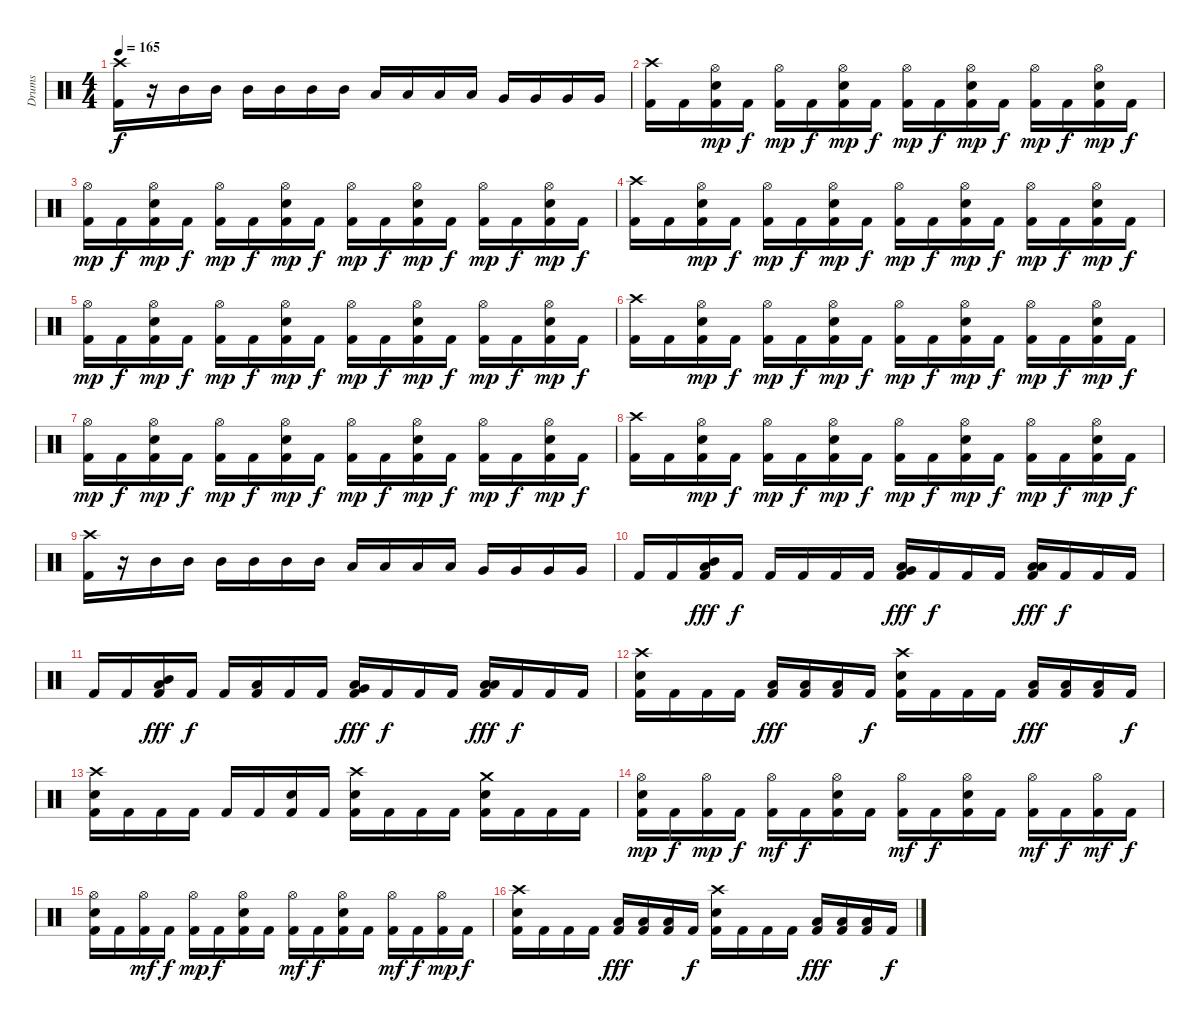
\track ("Drums" "Drums") {instrument percussion}
\staff {score}
\articulation defaults
\ts (4 4)
\tempo 165
\clef neutral
\ks c
("Crash high (hit)" "Kick (hit) 2").16{dy f} r.16 "Mid Tom (hit)".16 "Mid Tom (hit)".16 "Mid Tom (hit)".16 "Mid Tom (hit)".16 "Mid Tom (hit)".16 "Mid Tom (hit)".16 "Low Tom (hit)".16 "Low Tom (hit)".16 "Low Tom (hit)".16 "Low Tom (hit)".16 "Very Low Tom (hit)".16 "Very Low Tom (hit)".16 "Very Low Tom (hit)".16 "Very Low Tom (hit)".16 |
("Crash high (hit)" "Kick (hit) 2").16 "Kick (hit) 2".16 ("Hi-Hat (open)" "Snare (hit) 2" "Kick (hit) 2").16{dy mp} "Kick (hit) 2".16{dy f} ("Hi-Hat (open)" "Kick (hit) 2").16{dy mp} "Kick (hit) 2".16{dy f} ("Hi-Hat (open)" "Snare (hit) 2" "Kick (hit) 2").16{dy mp} "Kick (hit) 2".16{dy f} ("Hi-Hat (open)" "Kick (hit) 2").16{dy mp} "Kick (hit) 2".16{dy f} ("Hi-Hat (open)" "Snare (hit) 2" "Kick (hit) 2").16{dy mp} "Kick (hit) 2".16{dy f} ("Hi-Hat (open)" "Kick (hit) 2").16{dy mp} "Kick (hit) 2".16{dy f} ("Hi-Hat (open)" "Snare (hit) 2" "Kick (hit) 2").16{dy mp} "Kick (hit) 2".16{dy f} |
("Hi-Hat (open)" "Kick (hit) 2").16{dy mp} "Kick (hit) 2".16{dy f} ("Hi-Hat (open)" "Snare (hit) 2" "Kick (hit) 2").16{dy mp} "Kick (hit) 2".16{dy f} ("Hi-Hat (open)" "Kick (hit) 2").16{dy mp} "Kick (hit) 2".16{dy f} ("Hi-Hat (open)" "Snare (hit) 2" "Kick (hit) 2").16{dy mp} "Kick (hit) 2".16{dy f} ("Hi-Hat (open)" "Kick (hit) 2").16{dy mp} "Kick (hit) 2".16{dy f} ("Hi-Hat (open)" "Snare (hit) 2" "Kick (hit) 2").16{dy mp} "Kick (hit) 2".16{dy f} ("Hi-Hat (open)" "Kick (hit) 2").16{dy mp} "Kick (hit) 2".16{dy f} ("Hi-Hat (open)" "Snare (hit) 2" "Kick (hit) 2").16{dy mp} "Kick (hit) 2".16{dy f} |
("Crash high (hit)" "Kick (hit) 2").16 "Kick (hit) 2".16 ("Hi-Hat (open)" "Snare (hit) 2" "Kick (hit) 2").16{dy mp} "Kick (hit) 2".16{dy f} ("Hi-Hat (open)" "Kick (hit) 2").16{dy mp} "Kick (hit) 2".16{dy f} ("Hi-Hat (open)" "Snare (hit) 2" "Kick (hit) 2").16{dy mp} "Kick (hit) 2".16{dy f} ("Hi-Hat (open)" "Kick (hit) 2").16{dy mp} "Kick (hit) 2".16{dy f} ("Hi-Hat (open)" "Snare (hit) 2" "Kick (hit) 2").16{dy mp} "Kick (hit) 2".16{dy f} ("Hi-Hat (open)" "Kick (hit) 2").16{dy mp} "Kick (hit) 2".16{dy f} ("Hi-Hat (open)" "Snare (hit) 2" "Kick (hit) 2").16{dy mp} "Kick (hit) 2".16{dy f} |
("Hi-Hat (open)" "Kick (hit) 2").16{dy mp} "Kick (hit) 2".16{dy f} ("Hi-Hat (open)" "Snare (hit) 2" "Kick (hit) 2").16{dy mp} "Kick (hit) 2".16{dy f} ("Hi-Hat (open)" "Kick (hit) 2").16{dy mp} "Kick (hit) 2".16{dy f} ("Hi-Hat (open)" "Snare (hit) 2" "Kick (hit) 2").16{dy mp} "Kick (hit) 2".16{dy f} ("Hi-Hat (open)" "Kick (hit) 2").16{dy mp} "Kick (hit) 2".16{dy f} ("Hi-Hat (open)" "Snare (hit) 2" "Kick (hit) 2").16{dy mp} "Kick (hit) 2".16{dy f} ("Hi-Hat (open)" "Kick (hit) 2").16{dy mp} "Kick (hit) 2".16{dy f} ("Hi-Hat (open)" "Snare (hit) 2" "Kick (hit) 2").16{dy mp} "Kick (hit) 2".16{dy f} |
("Crash high (hit)" "Kick (hit) 2").16 "Kick (hit) 2".16 ("Hi-Hat (open)" "Snare (hit) 2" "Kick (hit) 2").16{dy mp} "Kick (hit) 2".16{dy f} ("Hi-Hat (open)" "Kick (hit) 2").16{dy mp} "Kick (hit) 2".16{dy f} ("Hi-Hat (open)" "Snare (hit) 2" "Kick (hit) 2").16{dy mp} "Kick (hit) 2".16{dy f} ("Hi-Hat (open)" "Kick (hit) 2").16{dy mp} "Kick (hit) 2".16{dy f} ("Hi-Hat (open)" "Snare (hit) 2" "Kick (hit) 2").16{dy mp} "Kick (hit) 2".16{dy f} ("Hi-Hat (open)" "Kick (hit) 2").16{dy mp} "Kick (hit) 2".16{dy f} ("Hi-Hat (open)" "Snare (hit) 2" "Kick (hit) 2").16{dy mp} "Kick (hit) 2".16{dy f} |
("Hi-Hat (open)" "Kick (hit) 2").16{dy mp} "Kick (hit) 2".16{dy f} ("Hi-Hat (open)" "Snare (hit) 2" "Kick (hit) 2").16{dy mp} "Kick (hit) 2".16{dy f} ("Hi-Hat (open)" "Kick (hit) 2").16{dy mp} "Kick (hit) 2".16{dy f} ("Hi-Hat (open)" "Snare (hit) 2" "Kick (hit) 2").16{dy mp} "Kick (hit) 2".16{dy f} ("Hi-Hat (open)" "Kick (hit) 2").16{dy mp} "Kick (hit) 2".16{dy f} ("Hi-Hat (open)" "Snare (hit) 2" "Kick (hit) 2").16{dy mp} "Kick (hit) 2".16{dy f} ("Hi-Hat (open)" "Kick (hit) 2").16{dy mp} "Kick (hit) 2".16{dy f} ("Hi-Hat (open)" "Snare (hit) 2" "Kick (hit) 2").16{dy mp} "Kick (hit) 2".16{dy f} |
("Crash high (hit)" "Kick (hit) 2").16 "Kick (hit) 2".16 ("Hi-Hat (open)" "Snare (hit) 2" "Kick (hit) 2").16{dy mp} "Kick (hit) 2".16{dy f} ("Hi-Hat (open)" "Kick (hit) 2").16{dy mp} "Kick (hit) 2".16{dy f} ("Hi-Hat (open)" "Snare (hit) 2" "Kick (hit) 2").16{dy mp} "Kick (hit) 2".16{dy f} ("Hi-Hat (open)" "Kick (hit) 2").16{dy mp} "Kick (hit) 2".16{dy f} ("Hi-Hat (open)" "Snare (hit) 2" "Kick (hit) 2").16{dy mp} "Kick (hit) 2".16{dy f} ("Hi-Hat (open)" "Kick (hit) 2").16{dy mp} "Kick (hit) 2".16{dy f} ("Hi-Hat (open)" "Snare (hit) 2" "Kick (hit) 2").16{dy mp} "Kick (hit) 2".16{dy f} |
("Crash high (hit)" "Kick (hit) 2").16 r.16 "Mid Tom (hit)".16 "Mid Tom (hit)".16 "Mid Tom (hit)".16 "Mid Tom (hit)".16 "Mid Tom (hit)".16 "Mid Tom (hit)".16 "Low Tom (hit)".16 "Low Tom (hit)".16 "Low Tom (hit)".16 "Low Tom (hit)".16 "Very Low Tom (hit)".16 "Very Low Tom (hit)".16 "Very Low Tom (hit)".16 "Very Low Tom (hit)".16 |
"Kick (hit) 2".16 "Kick (hit) 2".16 ("Mid Tom (hit)" "Low Tom (hit)" "Kick (hit) 2").16{dy fff} "Kick (hit) 2".16{dy f} "Kick (hit) 2".16 "Kick (hit) 2".16 "Kick (hit) 2".16 "Kick (hit) 2".16 ("Low Tom (hit)" "Very Low Tom (hit)" "Kick (hit) 2").16{dy fff} "Kick (hit) 2".16{dy f} "Kick (hit) 2".16 "Kick (hit) 2".16 ("Low Tom (hit)" "Low Floor Tom (hit)" "Kick (hit) 2").16{dy fff} "Kick (hit) 2".16{dy f} "Kick (hit) 2".16 "Kick (hit) 2".16 |
"Kick (hit) 2".16 "Kick (hit) 2".16 ("Mid Tom (hit)" "Low Tom (hit)" "Kick (hit) 2").16{dy fff} "Kick (hit) 2".16{dy f} "Kick (hit) 2".16 ("Low Tom (hit)" "Kick (hit) 2").16 "Kick (hit) 2".16 "Kick (hit) 2".16 ("Low Tom (hit)" "Very Low Tom (hit)" "Kick (hit) 2").16{dy fff} "Kick (hit) 2".16{dy f} "Kick (hit) 2".16 "Kick (hit) 2".16 ("Low Tom (hit)" "Low Floor Tom (hit)" "Kick (hit) 2").16{dy fff} "Kick (hit) 2".16{dy f} "Kick (hit) 2".16 "Kick (hit) 2".16 |
("Crash high (hit)" "Snare (hit) 2" "Kick (hit) 2").16 "Kick (hit) 2".16 "Kick (hit) 2".16 "Kick (hit) 2".16 ("Low Tom (hit)" "Kick (hit) 2").16{dy fff} ("Low Tom (hit)" "Kick (hit) 2").16 ("Low Tom (hit)" "Kick (hit) 2").16 "Kick (hit) 2".16{dy f} ("Crash high (hit)" "Snare (hit) 2" "Kick (hit) 2").16 "Kick (hit) 2".16 "Kick (hit) 2".16 "Kick (hit) 2".16 ("Low Tom (hit)" "Kick (hit) 2").16{dy fff} ("Low Tom (hit)" "Kick (hit) 2").16 ("Low Tom (hit)" "Kick (hit) 2").16 "Kick (hit) 2".16{dy f} |
("Crash high (hit)" "Snare (hit) 2" "Kick (hit) 2").16 "Kick (hit) 2".16 "Kick (hit) 2".16 "Kick (hit) 2".16 "Kick (hit) 2".16 "Kick (hit) 2".16 ("Snare (hit) 2" "Kick (hit) 2").16 "Kick (hit) 2".16 ("Crash high (hit)" "Snare (hit) 2" "Kick (hit) 2").16 "Kick (hit) 2".16 "Kick (hit) 2".16 "Kick (hit) 2".16 ("Crash medium (hit)" "Snare (hit) 2" "Kick (hit) 2").16 "Kick (hit) 2".16 "Kick (hit) 2".16 "Kick (hit) 2".16 |
("Hi-Hat (open)" "Snare (hit) 2" "Kick (hit) 2").16{dy mp} "Kick (hit) 2".16{dy f} ("Hi-Hat (open)" "Kick (hit) 2").16{dy mp} "Kick (hit) 2".16{dy f} ("Hi-Hat (open)" "Kick (hit) 2").16{dy mf} "Kick (hit) 2".16{dy f} ("Hi-Hat (open)" "Snare (hit) 2" "Kick (hit) 2").16 "Kick (hit) 2".16 ("Hi-Hat (open)" "Kick (hit) 2").16{dy mf} "Kick (hit) 2".16{dy f} ("Hi-Hat (open)" "Snare (hit) 2" "Kick (hit) 2").16 "Kick (hit) 2".16 ("Hi-Hat (open)" "Kick (hit) 2").16{dy mf} "Kick (hit) 2".16{dy f} ("Hi-Hat (open)" "Kick (hit) 2").16{dy mf} "Kick (hit) 2".16{dy f} |
("Hi-Hat (open)" "Snare (hit) 2" "Kick (hit) 2").16 "Kick (hit) 2".16 ("Hi-Hat (open)" "Kick (hit) 2").16{dy mf} "Kick (hit) 2".16{dy f} ("Hi-Hat (open)" "Kick (hit) 2").16{dy mp} "Kick (hit) 2".16{dy f} ("Hi-Hat (open)" "Snare (hit) 2" "Kick (hit) 2").16 "Kick (hit) 2".16 ("Hi-Hat (open)" "Kick (hit) 2").16{dy mf} "Kick (hit) 2".16{dy f} ("Hi-Hat (open)" "Snare (hit) 2" "Kick (hit) 2").16 "Kick (hit) 2".16 ("Hi-Hat (open)" "Kick (hit) 2").16{dy mf} "Kick (hit) 2".16{dy f} ("Hi-Hat (open)" "Kick (hit) 2").16{dy mp} "Kick (hit) 2".16{dy f} |
("Crash high (hit)" "Snare (hit) 2" "Kick (hit) 2").16 "Kick (hit) 2".16 "Kick (hit) 2".16 "Kick (hit) 2".16 ("Low Tom (hit)" "Kick (hit) 2").16{dy fff} ("Low Tom (hit)" "Kick (hit) 2").16 ("Low Tom (hit)" "Kick (hit) 2").16 "Kick (hit) 2".16{dy f} ("Crash high (hit)" "Snare (hit) 2" "Kick (hit) 2").16 "Kick (hit) 2".16 "Kick (hit) 2".16 "Kick (hit) 2".16 ("Low Tom (hit)" "Kick (hit) 2").16{dy fff} ("Low Tom (hit)" "Kick (hit) 2").16 ("Low Tom (hit)" "Kick (hit) 2").16 "Kick (hit) 2".16{dy f}
